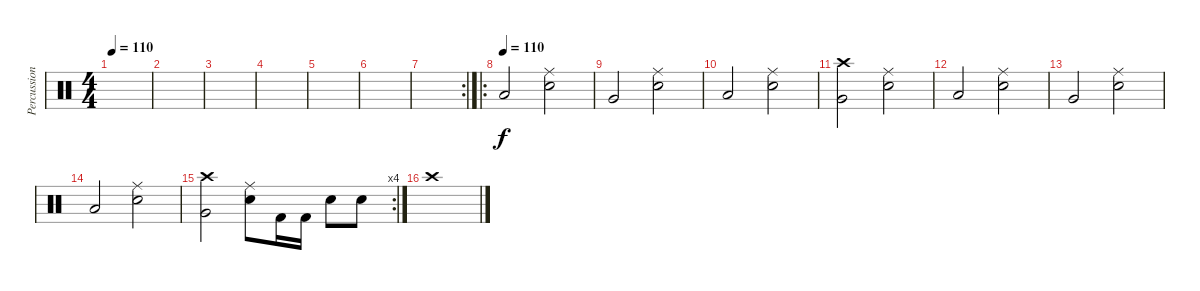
\track ("Percussions" "Percussion") {instrument percussion}
\staff {score}
\articulation defaults
\ts (4 4)
\tempo 110
\clef neutral
\ks c
|
|
|
|
|
|
\rc 2
|
\ro
\tempo (110)
"Low Tom (hit)".2 ("Electric Snare (hit)" "Ride (middle)").2 |
"Very Low Tom (hit)".2 ("Electric Snare (hit)" "Ride (middle)").2 |
"Low Tom (hit)".2 ("Electric Snare (hit)" "Ride (middle)").2 |
("Very Low Tom (hit)" "Crash high (hit)").2 ("Electric Snare (hit)" "Ride (middle)").2 |
"Low Tom (hit)".2 ("Electric Snare (hit)" "Ride (middle)").2 |
"Very Low Tom (hit)".2 ("Electric Snare (hit)" "Ride (middle)").2 |
"Low Tom (hit)".2 ("Electric Snare (hit)" "Ride (middle)").2 |
\rc 4
("Very Low Tom (hit)" "Crash high (hit)").2 ("Electric Snare (hit)" "Ride (middle)").8 "Kick (hit) 2".16 "Kick (hit) 2".16 "Electric Snare (hit)".8 "Electric Snare (hit)".8 |
"Crash high (hit)".1
